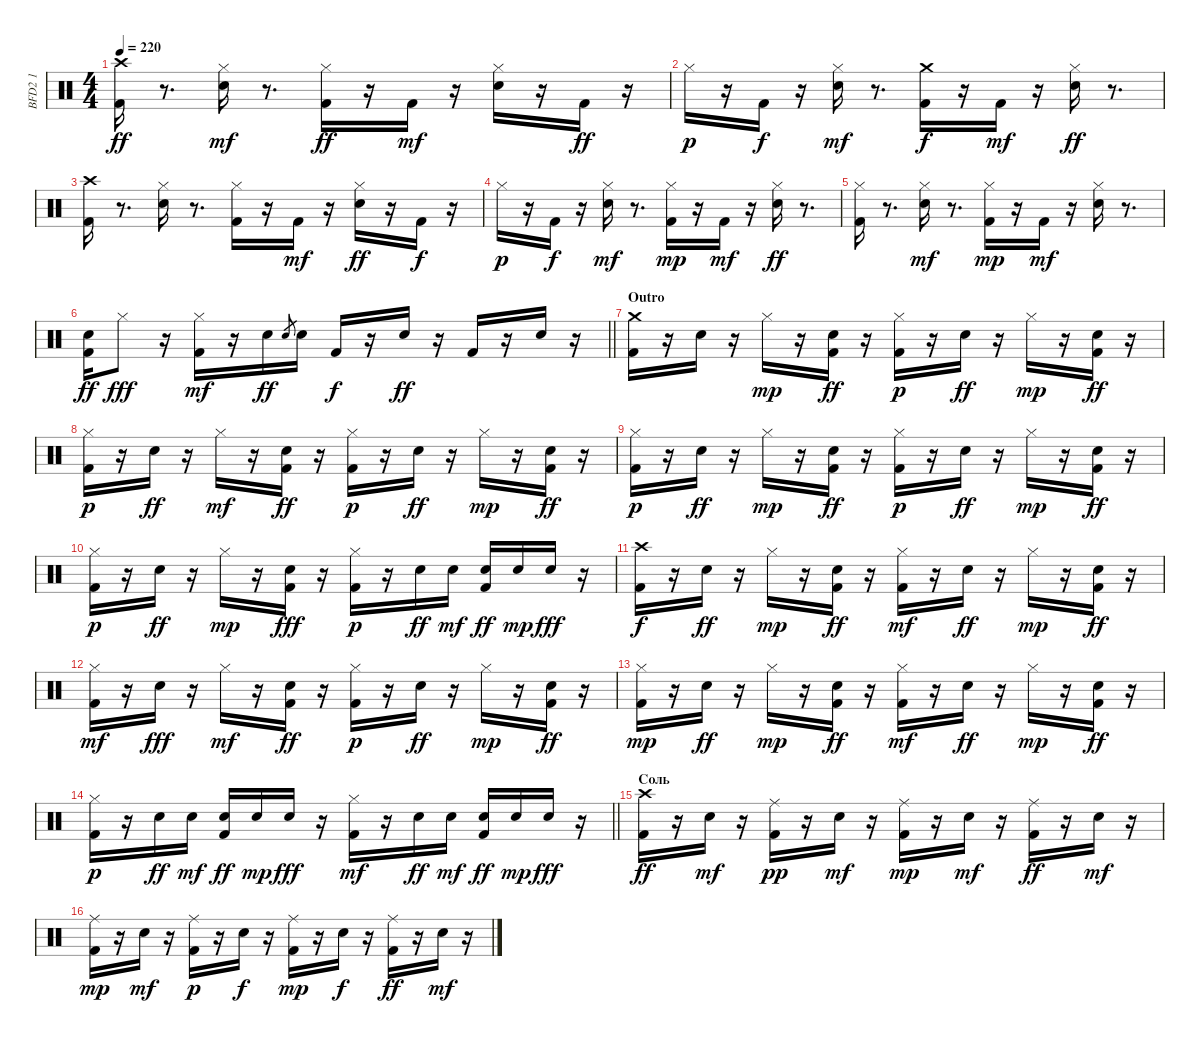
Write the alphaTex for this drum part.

\track ("BFD2 1" "BFD2 1") {instrument percussion}
\staff {score}
\articulation defaults
\ts (4 4)
\tempo 220
\clef neutral
\ks c
("Crash high (hit)" "Kick (hit) 2").16{dy ff} r.8{d} ("Snare (hit) 2" "Hi-Hat (closed)").16{dy mf} r.8{d} ("Hi-Hat (closed)" "Kick (hit) 2").16{dy ff} r.16 "Kick (hit) 2".16{dy mf} r.16 ("Snare (hit) 2" "Hi-Hat (closed)").16 r.16 "Kick (hit) 2".16{dy ff} r.16 |
"Hi-Hat (closed)".16{dy p} r.16 "Kick (hit) 2".16{dy f} r.16 ("Snare (hit) 2" "Hi-Hat (closed)").16{dy mf} r.8{d} ("Crash medium (hit)" "Kick (hit) 2").16{dy f} r.16 "Kick (hit) 2".16{dy mf} r.16 ("Hi-Hat (closed)" "Snare (hit) 2").16{dy ff} r.8{d} |
("Kick (hit) 2" "Crash high (hit)").16 r.8{d} ("Hi-Hat (closed)" "Snare (hit) 2").16 r.8{d} ("Hi-Hat (closed)" "Kick (hit) 2").16 r.16 "Kick (hit) 2".16{dy mf} r.16 ("Snare (hit) 2" "Hi-Hat (closed)").16{dy ff} r.16 "Kick (hit) 2".16{dy f} r.16 |
"Hi-Hat (closed)".16{dy p} r.16 "Kick (hit) 2".16{dy f} r.16 ("Snare (hit) 2" "Hi-Hat (closed)").16{dy mf} r.8{d} ("Kick (hit) 2" "Hi-Hat (closed)").16{dy mp} r.16 "Kick (hit) 2".16{dy mf} r.16 ("Hi-Hat (closed)" "Snare (hit) 2").16{dy ff} r.8{d} |
("Hi-Hat (closed)" "Kick (hit) 2").16 r.8{d} ("Snare (hit) 2" "Hi-Hat (closed)").16{dy mf} r.8{d} ("Kick (hit) 2" "Hi-Hat (closed)").16{dy mp} r.16 "Kick (hit) 2".16{dy mf} r.16 ("Snare (hit) 2" "Hi-Hat (closed)").16 r.8{d} |
\barLineRight lightlight
("Kick (hit) 2" "Snare (hit) 2").16{dy ff} "Hi-Hat (closed)".8{dy fff} r.16 ("Kick (hit) 2" "Hi-Hat (closed)").16{dy mf} r.16 "Snare (hit) 2".16{dy ff} "Snare (hit) 2".8{gr} "Snare (hit) 2".16 "Kick (hit) 2".16{dy f} r.16 "Snare (hit) 2".16{dy ff} r.16 "Kick (hit) 2".16 r.16 "Snare (hit) 2".16 r.16 |
\section ("" "Outro")
("Kick (hit) 2" "Crash medium (hit)").16 r.16 "Snare (hit) 2".16 r.16 "Hi-Hat (closed)".16{dy mp} r.16 ("Snare (hit) 2" "Kick (hit) 2").16{dy ff} r.16 ("Kick (hit) 2" "Hi-Hat (closed)").16{dy p} r.16 "Snare (hit) 2".16{dy ff} r.16 "Hi-Hat (closed)".16{dy mp} r.16 ("Snare (hit) 2" "Kick (hit) 2").16{dy ff} r.16 |
("Kick (hit) 2" "Hi-Hat (closed)").16{dy p} r.16 "Snare (hit) 2".16{dy ff} r.16 "Hi-Hat (closed)".16{dy mf} r.16 ("Snare (hit) 2" "Kick (hit) 2").16{dy ff} r.16 ("Kick (hit) 2" "Hi-Hat (closed)").16{dy p} r.16 "Snare (hit) 2".16{dy ff} r.16 "Hi-Hat (closed)".16{dy mp} r.16 ("Kick (hit) 2" "Snare (hit) 2").16{dy ff} r.16 |
("Kick (hit) 2" "Hi-Hat (closed)").16{dy p} r.16 "Snare (hit) 2".16{dy ff} r.16 "Hi-Hat (closed)".16{dy mp} r.16 ("Kick (hit) 2" "Snare (hit) 2").16{dy ff} r.16 ("Kick (hit) 2" "Hi-Hat (closed)").16{dy p} r.16 "Snare (hit) 2".16{dy ff} r.16 "Hi-Hat (closed)".16{dy mp} r.16 ("Kick (hit) 2" "Snare (hit) 2").16{dy ff} r.16 |
("Kick (hit) 2" "Hi-Hat (closed)").16{dy p} r.16 "Snare (hit) 2".16{dy ff} r.16 "Hi-Hat (closed)".16{dy mp} r.16 ("Kick (hit) 2" "Snare (hit) 2").16{dy fff} r.16 ("Kick (hit) 2" "Hi-Hat (closed)").16{dy p} r.16 "Snare (hit) 2".16{dy ff} "Snare (hit) 2".16{dy mf} ("Snare (hit) 2" "Kick (hit) 2").16{dy ff} "Snare (hit) 2".16{dy mp} "Snare (hit) 2".16{dy fff} r.16 |
("Kick (hit) 2" "Crash high (hit)").16{dy f} r.16 "Snare (hit) 2".16{dy ff} r.16 "Hi-Hat (closed)".16{dy mp} r.16 ("Snare (hit) 2" "Kick (hit) 2").16{dy ff} r.16 ("Hi-Hat (closed)" "Kick (hit) 2").16{dy mf} r.16 "Snare (hit) 2".16{dy ff} r.16 "Hi-Hat (closed)".16{dy mp} r.16 ("Snare (hit) 2" "Kick (hit) 2").16{dy ff} r.16 |
("Hi-Hat (closed)" "Kick (hit) 2").16{dy mf} r.16 "Snare (hit) 2".16{dy fff} r.16 "Hi-Hat (closed)".16{dy mf} r.16 ("Kick (hit) 2" "Snare (hit) 2").16{dy ff} r.16 ("Kick (hit) 2" "Hi-Hat (closed)").16{dy p} r.16 "Snare (hit) 2".16{dy ff} r.16 "Hi-Hat (closed)".16{dy mp} r.16 ("Snare (hit) 2" "Kick (hit) 2").16{dy ff} r.16 |
("Hi-Hat (closed)" "Kick (hit) 2").16{dy mp} r.16 "Snare (hit) 2".16{dy ff} r.16 "Hi-Hat (closed)".16{dy mp} r.16 ("Kick (hit) 2" "Snare (hit) 2").16{dy ff} r.16 ("Hi-Hat (closed)" "Kick (hit) 2").16{dy mf} r.16 "Snare (hit) 2".16{dy ff} r.16 "Hi-Hat (closed)".16{dy mp} r.16 ("Kick (hit) 2" "Snare (hit) 2").16{dy ff} r.16 |
\barLineRight lightlight
("Hi-Hat (closed)" "Kick (hit) 2").16{dy p} r.16 "Snare (hit) 2".16{dy ff} "Snare (hit) 2".16{dy mf} ("Snare (hit) 2" "Kick (hit) 2").16{dy ff} "Snare (hit) 2".16{dy mp} "Snare (hit) 2".16{dy fff} r.16 ("Kick (hit) 2" "Hi-Hat (closed)").16{dy mf} r.16 "Snare (hit) 2".16{dy ff} "Snare (hit) 2".16{dy mf} ("Kick (hit) 2" "Snare (hit) 2").16{dy ff} "Snare (hit) 2".16{dy mp} "Snare (hit) 2".16{dy fff} r.16 |
\section ("" "Соль")
("Kick (hit) 2" "Crash high (hit)").16{dy ff} r.16 "Snare (hit) 2".16{dy mf} r.16 ("Kick (hit) 2" "Ride (middle)").16{dy pp} r.16 "Snare (hit) 2".16{dy mf} r.16 ("Kick (hit) 2" "Ride (middle)").16{dy mp} r.16 "Snare (hit) 2".16{dy mf} r.16 ("Ride (middle)" "Kick (hit) 2").16{dy ff} r.16 "Snare (hit) 2".16{dy mf} r.16 |
("Kick (hit) 2" "Ride (middle)").16{dy mp} r.16 "Snare (hit) 2".16{dy mf} r.16 ("Kick (hit) 2" "Ride (middle)").16{dy p} r.16 "Snare (hit) 2".16{dy f} r.16 ("Kick (hit) 2" "Ride (middle)").16{dy mp} r.16 "Snare (hit) 2".16{dy f} r.16 ("Ride (middle)" "Kick (hit) 2").16{dy ff} r.16 "Snare (hit) 2".16{dy mf} r.16
